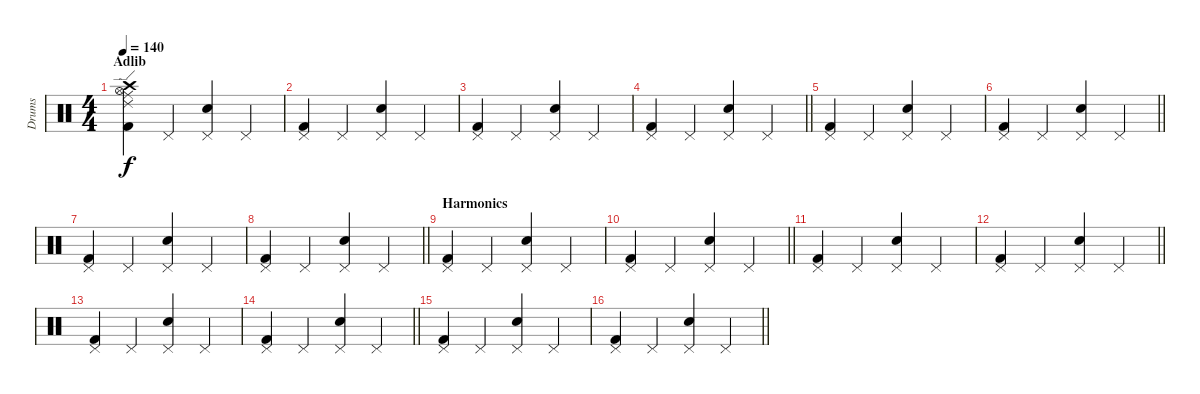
\track ("Drums" "Drums") {instrument percussion}
\staff {score}
\articulation defaults
\ts (4 4)
\section ("" "Adlib")
\tempo 140
\clef neutral
\ks c
("Hi-Hat (open)" "Kick (hit) 2" "Crash high (hit)" "Ride (edge) 2" "Ride (middle)").4{dy f} "Pedal Hi-Hat (hit)".4 ("Pedal Hi-Hat (hit)" "Snare (hit) 2").4 "Pedal Hi-Hat (hit)".4 |
("Pedal Hi-Hat (hit)" "Kick (hit) 2").4 "Pedal Hi-Hat (hit)".4 ("Pedal Hi-Hat (hit)" "Snare (hit) 2").4 "Pedal Hi-Hat (hit)".4 |
("Pedal Hi-Hat (hit)" "Kick (hit) 2").4 "Pedal Hi-Hat (hit)".4 ("Pedal Hi-Hat (hit)" "Snare (hit) 2").4 "Pedal Hi-Hat (hit)".4 |
\barLineRight lightlight
("Pedal Hi-Hat (hit)" "Kick (hit) 2").4 "Pedal Hi-Hat (hit)".4 ("Pedal Hi-Hat (hit)" "Snare (hit) 2").4 "Pedal Hi-Hat (hit)".4 |
("Pedal Hi-Hat (hit)" "Kick (hit) 2").4 "Pedal Hi-Hat (hit)".4 ("Pedal Hi-Hat (hit)" "Snare (hit) 2").4 "Pedal Hi-Hat (hit)".4 |
\barLineRight lightlight
("Pedal Hi-Hat (hit)" "Kick (hit) 2").4 "Pedal Hi-Hat (hit)".4 ("Pedal Hi-Hat (hit)" "Snare (hit) 2").4 "Pedal Hi-Hat (hit)".4 |
("Pedal Hi-Hat (hit)" "Kick (hit) 2").4 "Pedal Hi-Hat (hit)".4 ("Pedal Hi-Hat (hit)" "Snare (hit) 2").4 "Pedal Hi-Hat (hit)".4 |
\barLineRight lightlight
("Pedal Hi-Hat (hit)" "Kick (hit) 2").4 "Pedal Hi-Hat (hit)".4 ("Pedal Hi-Hat (hit)" "Snare (hit) 2").4 "Pedal Hi-Hat (hit)".4 |
\section ("" "Harmonics")
("Pedal Hi-Hat (hit)" "Kick (hit) 2").4 "Pedal Hi-Hat (hit)".4 ("Pedal Hi-Hat (hit)" "Snare (hit) 2").4 "Pedal Hi-Hat (hit)".4 |
\barLineRight lightlight
("Pedal Hi-Hat (hit)" "Kick (hit) 2").4 "Pedal Hi-Hat (hit)".4 ("Pedal Hi-Hat (hit)" "Snare (hit) 2").4 "Pedal Hi-Hat (hit)".4 |
("Pedal Hi-Hat (hit)" "Kick (hit) 2").4 "Pedal Hi-Hat (hit)".4 ("Pedal Hi-Hat (hit)" "Snare (hit) 2").4 "Pedal Hi-Hat (hit)".4 |
\barLineRight lightlight
("Pedal Hi-Hat (hit)" "Kick (hit) 2").4 "Pedal Hi-Hat (hit)".4 ("Pedal Hi-Hat (hit)" "Snare (hit) 2").4 "Pedal Hi-Hat (hit)".4 |
("Pedal Hi-Hat (hit)" "Kick (hit) 2").4 "Pedal Hi-Hat (hit)".4 ("Pedal Hi-Hat (hit)" "Snare (hit) 2").4 "Pedal Hi-Hat (hit)".4 |
\barLineRight lightlight
("Pedal Hi-Hat (hit)" "Kick (hit) 2").4 "Pedal Hi-Hat (hit)".4 ("Pedal Hi-Hat (hit)" "Snare (hit) 2").4 "Pedal Hi-Hat (hit)".4 |
("Pedal Hi-Hat (hit)" "Kick (hit) 2").4 "Pedal Hi-Hat (hit)".4 ("Pedal Hi-Hat (hit)" "Snare (hit) 2").4 "Pedal Hi-Hat (hit)".4 |
\barLineRight lightlight
("Pedal Hi-Hat (hit)" "Kick (hit) 2").4 "Pedal Hi-Hat (hit)".4 ("Pedal Hi-Hat (hit)" "Snare (hit) 2").4 "Pedal Hi-Hat (hit)".4
